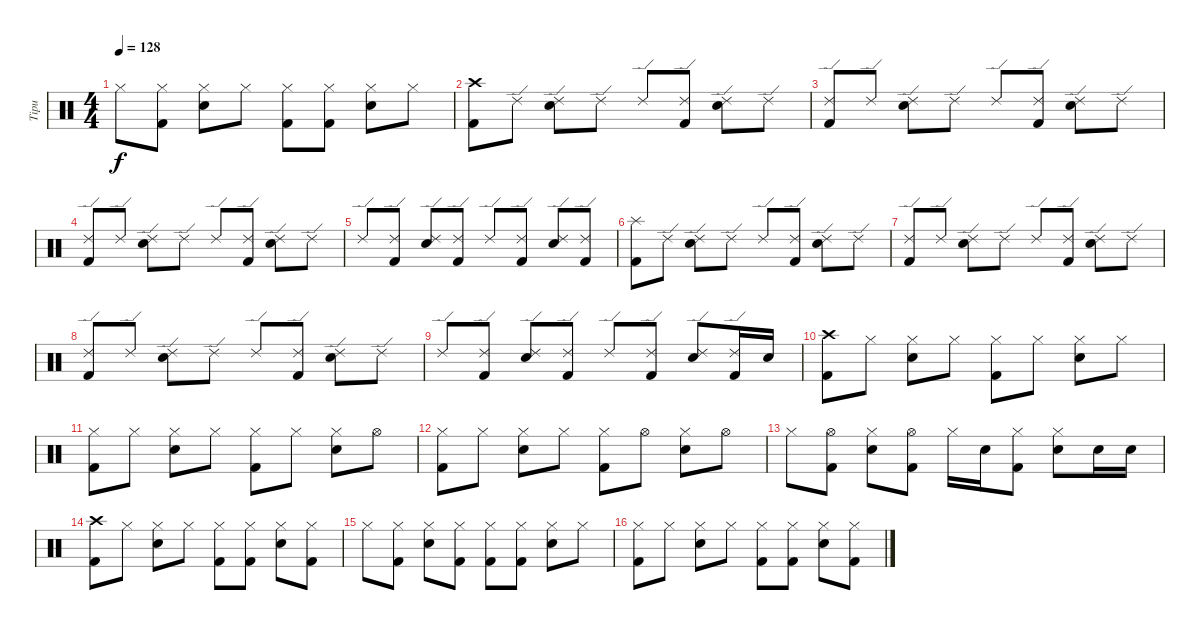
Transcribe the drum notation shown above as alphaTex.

\track ("Tipu" "Tipu") {instrument percussion}
\staff {score}
\articulation defaults
\ts (4 4)
\tempo 128
\clef neutral
\ks c "Hi-Hat (closed)".8{dy f}
("Hi-Hat (closed)" "Kick (hit) 2").8 ("Hi-Hat (closed)" "Electric Snare (hit)").8 "Hi-Hat (closed)".8 ("Hi-Hat (closed)" "Kick (hit) 2").8 ("Hi-Hat (closed)" "Kick (hit) 2").8 ("Hi-Hat (closed)" "Electric Snare (hit)").8 "Hi-Hat (closed)".8 |
("Crash high (hit)" "Kick (hit) 2").8 "Ride (edge) 2".8 ("Ride (edge) 2" "Electric Snare (hit)").8 "Ride (edge) 2".8 "Ride (edge) 2".8 ("Ride (edge) 2" "Kick (hit) 2").8 ("Ride (edge) 2" "Electric Snare (hit)").8 "Ride (edge) 2".8 |
("Ride (edge) 2" "Kick (hit) 2").8 "Ride (edge) 2".8 ("Ride (edge) 2" "Electric Snare (hit)").8 "Ride (edge) 2".8 "Ride (edge) 2".8 ("Ride (edge) 2" "Kick (hit) 2").8 ("Ride (edge) 2" "Electric Snare (hit)").8 "Ride (edge) 2".8 |
("Ride (edge) 2" "Kick (hit) 2").8 "Ride (edge) 2".8 ("Ride (edge) 2" "Electric Snare (hit)").8 "Ride (edge) 2".8 "Ride (edge) 2".8 ("Ride (edge) 2" "Kick (hit) 2").8 ("Ride (edge) 2" "Electric Snare (hit)").8 "Ride (edge) 2".8 |
"Ride (edge) 2".8 ("Ride (edge) 2" "Kick (hit) 2").8 ("Ride (edge) 2" "Electric Snare (hit)").8 ("Ride (edge) 2" "Kick (hit) 2").8 "Ride (edge) 2".8 ("Ride (edge) 2" "Kick (hit) 2").8 ("Ride (edge) 2" "Electric Snare (hit)").8 ("Ride (edge) 2" "Kick (hit) 2").8 |
("Splash (hit)" "Kick (hit) 2").8 "Ride (edge) 2".8 ("Ride (edge) 2" "Electric Snare (hit)").8 "Ride (edge) 2".8 "Ride (edge) 2".8 ("Ride (edge) 2" "Kick (hit) 2").8 ("Ride (edge) 2" "Electric Snare (hit)").8 "Ride (edge) 2".8 |
("Ride (edge) 2" "Kick (hit) 2").8 "Ride (edge) 2".8 ("Ride (edge) 2" "Electric Snare (hit)").8 "Ride (edge) 2".8 "Ride (edge) 2".8 ("Ride (edge) 2" "Kick (hit) 2").8 ("Ride (edge) 2" "Electric Snare (hit)").8 "Ride (edge) 2".8 |
("Ride (edge) 2" "Kick (hit) 2").8 "Ride (edge) 2".8 ("Ride (edge) 2" "Electric Snare (hit)").8 "Ride (edge) 2".8 "Ride (edge) 2".8 ("Ride (edge) 2" "Kick (hit) 2").8 ("Ride (edge) 2" "Electric Snare (hit)").8 "Ride (edge) 2".8 |
"Ride (edge) 2".8 ("Ride (edge) 2" "Kick (hit) 2").8 ("Ride (edge) 2" "Electric Snare (hit)").8 ("Ride (edge) 2" "Kick (hit) 2").8 "Ride (edge) 2".8 ("Ride (edge) 2" "Kick (hit) 2").8 ("Ride (edge) 2" "Electric Snare (hit)").8 ("Ride (edge) 2" "Kick (hit) 2").16 "Electric Snare (hit)".16 |
("Crash high (hit)" "Kick (hit) 2").8 "Hi-Hat (closed)".8 ("Hi-Hat (closed)" "Electric Snare (hit)").8 "Hi-Hat (closed)".8 ("Hi-Hat (closed)" "Kick (hit) 2").8 "Hi-Hat (closed)".8 ("Hi-Hat (closed)" "Electric Snare (hit)").8 "Hi-Hat (closed)".8 |
("Hi-Hat (closed)" "Kick (hit) 2").8 "Hi-Hat (closed)".8 ("Hi-Hat (closed)" "Electric Snare (hit)").8 "Hi-Hat (closed)".8 ("Hi-Hat (closed)" "Kick (hit) 2").8 "Hi-Hat (closed)".8 ("Hi-Hat (closed)" "Electric Snare (hit)").8 "Hi-Hat (open)".8 |
("Hi-Hat (closed)" "Kick (hit) 2").8 "Hi-Hat (closed)".8 ("Hi-Hat (closed)" "Electric Snare (hit)").8 "Hi-Hat (closed)".8 ("Hi-Hat (closed)" "Kick (hit) 2").8 "Hi-Hat (open)".8 ("Hi-Hat (closed)" "Electric Snare (hit)").8 "Hi-Hat (open)".8 |
"Hi-Hat (closed)".8 ("Hi-Hat (open)" "Kick (hit) 2").8 ("Hi-Hat (closed)" "Electric Snare (hit)").8 ("Hi-Hat (open)" "Kick (hit) 2").8 "Hi-Hat (closed)".16 "Electric Snare (hit)".16 ("Hi-Hat (closed)" "Kick (hit) 2").8 ("Hi-Hat (closed)" "Electric Snare (hit)").8 "Electric Snare (hit)".16 "Electric Snare (hit)".16 |
("Crash high (hit)" "Kick (hit) 2").8 "Hi-Hat (closed)".8 ("Hi-Hat (closed)" "Electric Snare (hit)").8 "Hi-Hat (closed)".8 ("Hi-Hat (closed)" "Kick (hit) 2").8 ("Hi-Hat (closed)" "Kick (hit) 2").8 ("Hi-Hat (closed)" "Electric Snare (hit)").8 ("Hi-Hat (closed)" "Kick (hit) 2").8 |
"Hi-Hat (closed)".8 ("Hi-Hat (closed)" "Kick (hit) 2").8 ("Hi-Hat (closed)" "Electric Snare (hit)").8 ("Hi-Hat (closed)" "Kick (hit) 2").8 ("Hi-Hat (closed)" "Kick (hit) 2").8 ("Hi-Hat (closed)" "Kick (hit) 2").8 ("Hi-Hat (closed)" "Electric Snare (hit)").8 "Hi-Hat (closed)".8 |
("Hi-Hat (closed)" "Kick (hit) 2").8 "Hi-Hat (closed)".8 ("Hi-Hat (closed)" "Electric Snare (hit)").8 "Hi-Hat (closed)".8 ("Hi-Hat (closed)" "Kick (hit) 2").8 ("Hi-Hat (closed)" "Kick (hit) 2").8 ("Hi-Hat (closed)" "Electric Snare (hit)").8 ("Hi-Hat (closed)" "Kick (hit) 2").8
